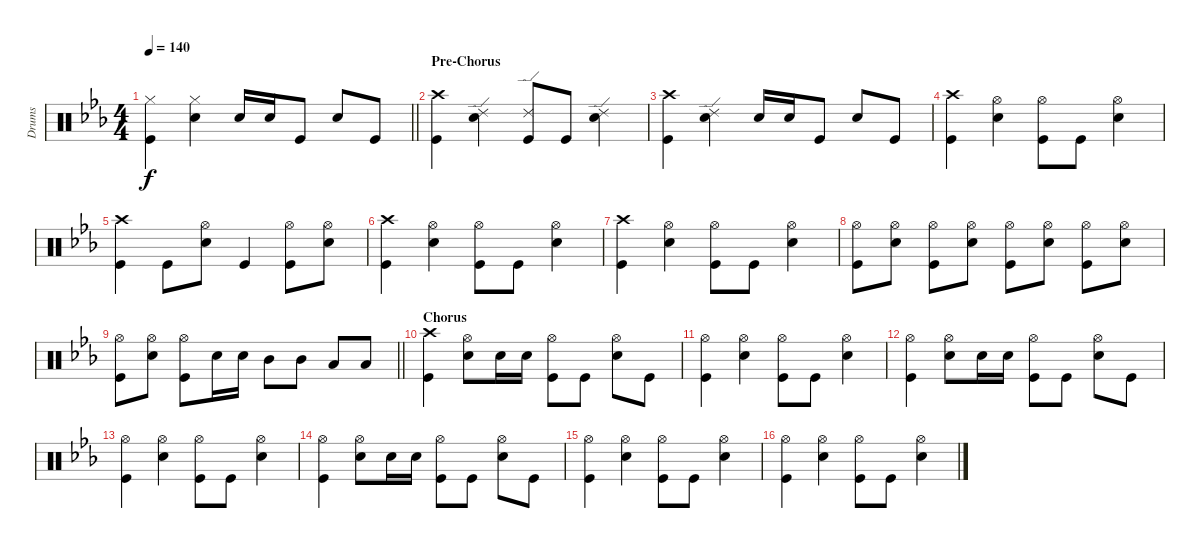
\track ("Drums" "Drums") {instrument percussion}
\staff {score}
\articulation defaults
\ts (4 4)
\tempo 140
\clef neutral
\barLineRight lightlight
\ks eb
("Hi-Hat (closed)" "Kick (hit)").4{dy f} ("Hi-Hat (closed)" "Snare (hit) 2").4 "Snare (hit) 2".16 "Snare (hit) 2".16 "Kick (hit)".8 "Snare (hit) 2".8 "Kick (hit)".8 |
\section ("" "Pre-Chorus")
("Crash high (hit)" "Kick (hit)").4 ("Ride (edge) 2" "Snare (hit) 2").4 ("Ride (edge) 2" "Kick (hit)").8 "Kick (hit)".8 ("Ride (edge) 2" "Snare (hit) 2").4 |
("Crash high (hit)" "Kick (hit)").4 ("Ride (edge) 2" "Snare (hit) 2").4 "Snare (hit) 2".16 "Snare (hit) 2".16 "Kick (hit)".8 "Snare (hit) 2".8 "Kick (hit)".8 |
("Crash high (hit)" "Kick (hit)").4 ("Hi-Hat (open)" "Snare (hit) 2").4 ("Hi-Hat (open)" "Kick (hit)").8 "Kick (hit)".8 ("Hi-Hat (open)" "Snare (hit) 2").4 |
("Crash high (hit)" "Kick (hit)").4 "Kick (hit)".8 ("Hi-Hat (open)" "Snare (hit) 2").8 "Kick (hit)".4 ("Hi-Hat (open)" "Kick (hit)").8 ("Hi-Hat (open)" "Snare (hit) 2").8 |
("Crash high (hit)" "Kick (hit)").4 ("Hi-Hat (open)" "Snare (hit) 2").4 ("Hi-Hat (open)" "Kick (hit)").8 "Kick (hit)".8 ("Hi-Hat (open)" "Snare (hit) 2").4 |
("Crash high (hit)" "Kick (hit)").4 ("Hi-Hat (open)" "Snare (hit) 2").4 ("Hi-Hat (open)" "Kick (hit)").8 "Kick (hit)".8 ("Hi-Hat (open)" "Snare (hit) 2").4 |
("Hi-Hat (open)" "Kick (hit)").8 ("Hi-Hat (open)" "Snare (hit) 2").8 ("Hi-Hat (open)" "Kick (hit)").8 ("Hi-Hat (open)" "Snare (hit) 2").8 ("Hi-Hat (open)" "Kick (hit)").8 ("Hi-Hat (open)" "Snare (hit) 2").8 ("Hi-Hat (open)" "Kick (hit)").8 ("Hi-Hat (open)" "Snare (hit) 2").8 |
\barLineRight lightlight
("Hi-Hat (open)" "Kick (hit)").8 ("Hi-Hat (open)" "Snare (hit) 2").8 ("Hi-Hat (open)" "Kick (hit)").8 "Snare (hit) 2".16 "Snare (hit) 2".16 "Mid Tom (hit)".8 "Mid Tom (hit)".8 "Low Tom (hit)".8 "Low Tom (hit)".8 |
\section ("" "Chorus")
("Crash high (hit)" "Kick (hit)").4 ("Hi-Hat (open)" "Snare (hit) 2").8 "Snare (hit) 2".16 "Snare (hit) 2".16 ("Hi-Hat (open)" "Kick (hit)").8 "Kick (hit)".8 ("Hi-Hat (open)" "Snare (hit) 2").8 "Kick (hit)".8 |
("Hi-Hat (open)" "Kick (hit)").4 ("Hi-Hat (open)" "Snare (hit) 2").4 ("Hi-Hat (open)" "Kick (hit)").8 "Kick (hit)".8 ("Hi-Hat (open)" "Snare (hit) 2").4 |
("Hi-Hat (open)" "Kick (hit)").4 ("Hi-Hat (open)" "Snare (hit) 2").8 "Snare (hit) 2".16 "Snare (hit) 2".16 ("Hi-Hat (open)" "Kick (hit)").8 "Kick (hit)".8 ("Hi-Hat (open)" "Snare (hit) 2").8 "Kick (hit)".8 |
("Hi-Hat (open)" "Kick (hit)").4 ("Hi-Hat (open)" "Snare (hit) 2").4 ("Hi-Hat (open)" "Kick (hit)").8 "Kick (hit)".8 ("Hi-Hat (open)" "Snare (hit) 2").4 |
("Hi-Hat (open)" "Kick (hit)").4 ("Hi-Hat (open)" "Snare (hit) 2").8 "Snare (hit) 2".16 "Snare (hit) 2".16 ("Hi-Hat (open)" "Kick (hit)").8 "Kick (hit)".8 ("Hi-Hat (open)" "Snare (hit) 2").8 "Kick (hit)".8 |
("Hi-Hat (open)" "Kick (hit)").4 ("Hi-Hat (open)" "Snare (hit) 2").4 ("Hi-Hat (open)" "Kick (hit)").8 "Kick (hit)".8 ("Hi-Hat (open)" "Snare (hit) 2").4 |
("Hi-Hat (open)" "Kick (hit)").4 ("Hi-Hat (open)" "Snare (hit) 2").4 ("Hi-Hat (open)" "Kick (hit)").8 "Kick (hit)".8 ("Hi-Hat (open)" "Snare (hit) 2").4
